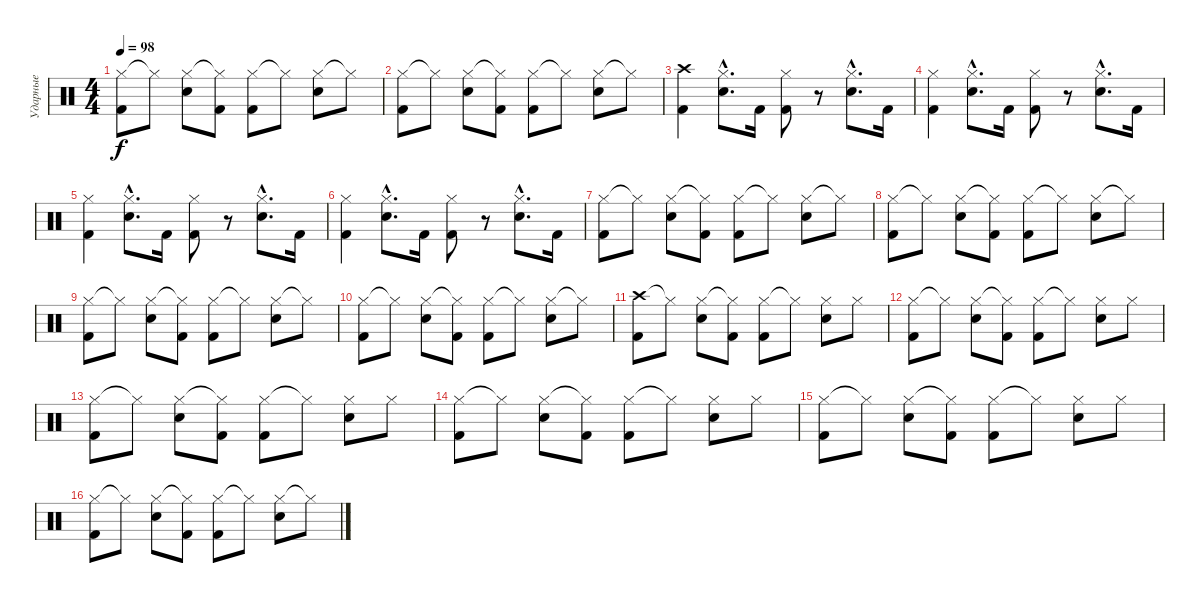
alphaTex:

\track ("Ударные" "Ударные") {instrument percussion}
\staff {score}
\articulation defaults
\ts (4 4)
\tempo 98
\clef neutral
\ks c
("Hi-Hat (closed)" "Kick (hit) 2").8{dy f} "Hi-Hat (closed)"{t}.8 ("Hi-Hat (closed)" "Snare (hit) 2").8 ("Hi-Hat (closed)"{t} "Kick (hit) 2").8 ("Hi-Hat (closed)" "Kick (hit) 2").8 "Hi-Hat (closed)"{t}.8 ("Hi-Hat (closed)" "Snare (hit) 2").8 "Hi-Hat (closed)"{t}.8 |
("Hi-Hat (closed)" "Kick (hit) 2").8 "Hi-Hat (closed)"{t}.8 ("Hi-Hat (closed)" "Snare (hit) 2").8 ("Hi-Hat (closed)"{t} "Kick (hit) 2").8 ("Hi-Hat (closed)" "Kick (hit) 2").8 "Hi-Hat (closed)"{t}.8 ("Hi-Hat (closed)" "Snare (hit) 2").8 "Hi-Hat (closed)"{t}.8 |
("Crash high (hit)" "Kick (hit) 2").4 ("Hi-Hat (closed)"{hac} "Snare (hit) 2"{hac}).8{d} "Kick (hit) 2".16 ("Hi-Hat (closed)" "Kick (hit) 2").8 r.8 ("Hi-Hat (closed)"{hac} "Snare (hit) 2"{hac}).8{d} "Kick (hit) 2".16 |
("Hi-Hat (closed)" "Kick (hit) 2").4 ("Hi-Hat (closed)"{hac} "Snare (hit) 2"{hac}).8{d} "Kick (hit) 2".16 ("Hi-Hat (closed)" "Kick (hit) 2").8 r.8 ("Hi-Hat (closed)"{hac} "Snare (hit) 2"{hac}).8{d} "Kick (hit) 2".16 |
("Hi-Hat (closed)" "Kick (hit) 2").4 ("Hi-Hat (closed)"{hac} "Snare (hit) 2"{hac}).8{d} "Kick (hit) 2".16 ("Hi-Hat (closed)" "Kick (hit) 2").8 r.8 ("Hi-Hat (closed)"{hac} "Snare (hit) 2"{hac}).8{d} "Kick (hit) 2".16 |
("Hi-Hat (closed)" "Kick (hit) 2").4 ("Hi-Hat (closed)"{hac} "Snare (hit) 2"{hac}).8{d} "Kick (hit) 2".16 ("Hi-Hat (closed)" "Kick (hit) 2").8 r.8 ("Hi-Hat (closed)"{hac} "Snare (hit) 2"{hac}).8{d} "Kick (hit) 2".16 |
("Hi-Hat (closed)" "Kick (hit) 2").8 "Hi-Hat (closed)"{t}.8 ("Hi-Hat (closed)" "Snare (hit) 2").8 ("Hi-Hat (closed)"{t} "Kick (hit) 2").8 ("Hi-Hat (closed)" "Kick (hit) 2").8 "Hi-Hat (closed)"{t}.8 ("Hi-Hat (closed)" "Snare (hit) 2").8 "Hi-Hat (closed)"{t}.8 |
("Hi-Hat (closed)" "Kick (hit) 2").8 "Hi-Hat (closed)"{t}.8 ("Hi-Hat (closed)" "Snare (hit) 2").8 ("Hi-Hat (closed)"{t} "Kick (hit) 2").8 ("Hi-Hat (closed)" "Kick (hit) 2").8 "Hi-Hat (closed)"{t}.8 ("Hi-Hat (closed)" "Snare (hit) 2").8 "Hi-Hat (closed)"{t}.8 |
("Hi-Hat (closed)" "Kick (hit) 2").8 "Hi-Hat (closed)"{t}.8 ("Hi-Hat (closed)" "Snare (hit) 2").8 ("Hi-Hat (closed)"{t} "Kick (hit) 2").8 ("Hi-Hat (closed)" "Kick (hit) 2").8 "Hi-Hat (closed)"{t}.8 ("Hi-Hat (closed)" "Snare (hit) 2").8 "Hi-Hat (closed)"{t}.8 |
("Hi-Hat (closed)" "Kick (hit) 2").8 "Hi-Hat (closed)"{t}.8 ("Hi-Hat (closed)" "Snare (hit) 2").8 ("Hi-Hat (closed)"{t} "Kick (hit) 2").8 ("Hi-Hat (closed)" "Kick (hit) 2").8 "Hi-Hat (closed)"{t}.8 ("Hi-Hat (closed)" "Snare (hit) 2").8 "Hi-Hat (closed)"{t}.8 |
("Crash high (hit)" "Kick (hit) 2").8 "Hi-Hat (closed)"{t}.8 ("Hi-Hat (closed)" "Snare (hit) 2").8 ("Hi-Hat (closed)"{t} "Kick (hit) 2").8 ("Hi-Hat (closed)" "Kick (hit) 2").8 "Hi-Hat (closed)"{t}.8 ("Hi-Hat (closed)" "Snare (hit) 2").8 "Hi-Hat (closed)".8 |
("Hi-Hat (closed)" "Kick (hit) 2").8 "Hi-Hat (closed)"{t}.8 ("Hi-Hat (closed)" "Snare (hit) 2").8 ("Hi-Hat (closed)"{t} "Kick (hit) 2").8 ("Hi-Hat (closed)" "Kick (hit) 2").8 "Hi-Hat (closed)"{t}.8 ("Hi-Hat (closed)" "Snare (hit) 2").8 "Hi-Hat (closed)".8 |
("Hi-Hat (closed)" "Kick (hit) 2").8 "Hi-Hat (closed)"{t}.8 ("Hi-Hat (closed)" "Snare (hit) 2").8 ("Hi-Hat (closed)"{t} "Kick (hit) 2").8 ("Hi-Hat (closed)" "Kick (hit) 2").8 "Hi-Hat (closed)"{t}.8 ("Hi-Hat (closed)" "Snare (hit) 2").8 "Hi-Hat (closed)".8 |
("Hi-Hat (closed)" "Kick (hit) 2").8 "Hi-Hat (closed)"{t}.8 ("Hi-Hat (closed)" "Snare (hit) 2").8 ("Hi-Hat (closed)"{t} "Kick (hit) 2").8 ("Hi-Hat (closed)" "Kick (hit) 2").8 "Hi-Hat (closed)"{t}.8 ("Hi-Hat (closed)" "Snare (hit) 2").8 "Hi-Hat (closed)".8 |
("Hi-Hat (closed)" "Kick (hit) 2").8 "Hi-Hat (closed)"{t}.8 ("Hi-Hat (closed)" "Snare (hit) 2").8 ("Hi-Hat (closed)"{t} "Kick (hit) 2").8 ("Hi-Hat (closed)" "Kick (hit) 2").8 "Hi-Hat (closed)"{t}.8 ("Hi-Hat (closed)" "Snare (hit) 2").8 "Hi-Hat (closed)".8 |
("Hi-Hat (closed)" "Kick (hit) 2").8 "Hi-Hat (closed)"{t}.8 ("Hi-Hat (closed)" "Snare (hit) 2").8 ("Hi-Hat (closed)"{t} "Kick (hit) 2").8 ("Hi-Hat (closed)" "Kick (hit) 2").8 "Hi-Hat (closed)"{t}.8 ("Hi-Hat (closed)" "Snare (hit) 2").8 "Hi-Hat (closed)"{t}.8
